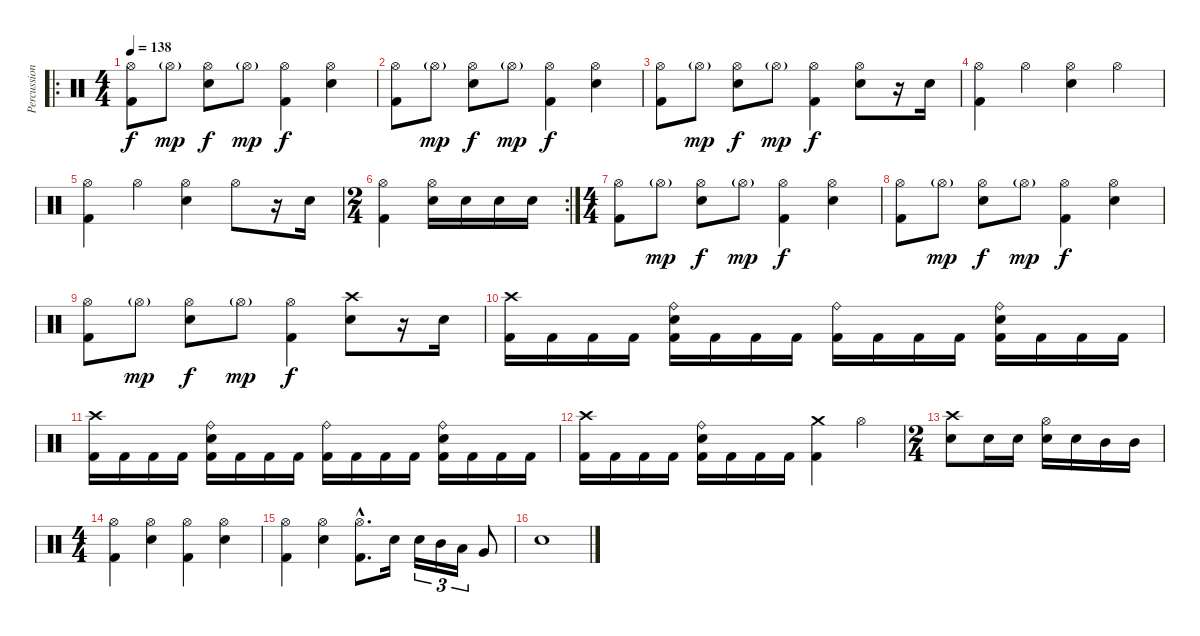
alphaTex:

\track ("Percussion" "Percussion") {instrument percussion}
\staff {score}
\articulation defaults
\ro
\ts (4 4)
\tempo 138
\clef neutral
\ks c
("Hi-Hat (open)" "Kick (hit) 2").8{dy f} "Hi-Hat (open)"{g}.8{dy mp} ("Hi-Hat (open)" "Snare (hit) 2").8{dy f} "Hi-Hat (open)"{g}.8{dy mp} ("Hi-Hat (open)" "Kick (hit) 2").4{dy f} ("Hi-Hat (open)" "Snare (hit) 2").4 |
("Hi-Hat (open)" "Kick (hit) 2").8 "Hi-Hat (open)"{g}.8{dy mp} ("Hi-Hat (open)" "Snare (hit) 2").8{dy f} "Hi-Hat (open)"{g}.8{dy mp} ("Hi-Hat (open)" "Kick (hit) 2").4{dy f} ("Hi-Hat (open)" "Snare (hit) 2").4 |
("Hi-Hat (open)" "Kick (hit) 2").8 "Hi-Hat (open)"{g}.8{dy mp} ("Hi-Hat (open)" "Snare (hit) 2").8{dy f} "Hi-Hat (open)"{g}.8{dy mp} ("Hi-Hat (open)" "Kick (hit) 2").4{dy f} ("Hi-Hat (open)" "Snare (hit) 2").8 r.16 "Snare (hit) 2".16 |
("Hi-Hat (open)" "Kick (hit) 2").4 "Hi-Hat (open)".4 ("Hi-Hat (open)" "Snare (hit) 2").4 "Hi-Hat (open)".4 |
("Hi-Hat (open)" "Kick (hit) 2").4 "Hi-Hat (open)".4 ("Hi-Hat (open)" "Snare (hit) 2").4 "Hi-Hat (open)".8 r.16 "Snare (hit) 2".16 |
\rc 2
\ts (2 4)
("Hi-Hat (open)" "Kick (hit) 2").4 ("Hi-Hat (open)" "Snare (hit) 2").16 "Snare (hit) 2".16 "Snare (hit) 2".16 "Snare (hit) 2".16 |
\ts (4 4)
("Hi-Hat (open)" "Kick (hit) 2").8 "Hi-Hat (open)"{g}.8{dy mp} ("Hi-Hat (open)" "Snare (hit) 2").8{dy f} "Hi-Hat (open)"{g}.8{dy mp} ("Hi-Hat (open)" "Kick (hit) 2").4{dy f} ("Hi-Hat (open)" "Snare (hit) 2").4 |
("Hi-Hat (open)" "Kick (hit) 2").8 "Hi-Hat (open)"{g}.8{dy mp} ("Hi-Hat (open)" "Snare (hit) 2").8{dy f} "Hi-Hat (open)"{g}.8{dy mp} ("Hi-Hat (open)" "Kick (hit) 2").4{dy f} ("Hi-Hat (open)" "Snare (hit) 2").4 |
("Hi-Hat (open)" "Kick (hit) 2").8 "Hi-Hat (open)"{g}.8{dy mp} ("Hi-Hat (open)" "Snare (hit) 2").8{dy f} "Hi-Hat (open)"{g}.8{dy mp} ("Hi-Hat (open)" "Kick (hit) 2").4{dy f} ("Crash high (hit)" "Snare (hit) 2").8 r.16 "Snare (hit) 2".16 |
("Crash high (hit)" "Kick (hit) 2").16 "Kick (hit) 2".16 "Kick (hit) 2".16 "Kick (hit) 2".16 ("Ride (bell)" "Snare (hit) 2" "Kick (hit) 2").16 "Kick (hit) 2".16 "Kick (hit) 2".16 "Kick (hit) 2".16 ("Ride (bell)" "Kick (hit) 2").16 "Kick (hit) 2".16 "Kick (hit) 2".16 "Kick (hit) 2".16 ("Ride (bell)" "Snare (hit) 2" "Kick (hit) 2").16 "Kick (hit) 2".16 "Kick (hit) 2".16 "Kick (hit) 2".16 |
("Crash high (hit)" "Kick (hit) 2").16 "Kick (hit) 2".16 "Kick (hit) 2".16 "Kick (hit) 2".16 ("Ride (bell)" "Snare (hit) 2" "Kick (hit) 2").16 "Kick (hit) 2".16 "Kick (hit) 2".16 "Kick (hit) 2".16 ("Ride (bell)" "Kick (hit) 2").16 "Kick (hit) 2".16 "Kick (hit) 2".16 "Kick (hit) 2".16 ("Ride (bell)" "Snare (hit) 2" "Kick (hit) 2").16 "Kick (hit) 2".16 "Kick (hit) 2".16 "Kick (hit) 2".16 |
("Crash high (hit)" "Kick (hit) 2").16 "Kick (hit) 2".16 "Kick (hit) 2".16 "Kick (hit) 2".16 ("Ride (bell)" "Snare (hit) 2" "Kick (hit) 2").16 "Kick (hit) 2".16 "Kick (hit) 2".16 "Kick (hit) 2".16 ("Crash medium (hit)" "Kick (hit) 2").4 "Hi-Hat (open)".4 |
\ts (2 4)
("Crash high (hit)" "Snare (hit) 2").8 "Snare (hit) 2".16 "Snare (hit) 2".16 ("Hi-Hat (open)" "Snare (hit) 2").16 "Snare (hit) 2".16 "Mid Tom (hit)".16 "Mid Tom (hit)".16 |
\ts (4 4)
("Hi-Hat (open)" "Kick (hit) 2").4 ("Hi-Hat (open)" "Snare (hit) 2").4 ("Hi-Hat (open)" "Kick (hit) 2").4 ("Hi-Hat (open)" "Snare (hit) 2").4 |
("Hi-Hat (open)" "Kick (hit) 2").4 ("Hi-Hat (open)" "Snare (hit) 2").4 ("Hi-Hat (open)"{hac} "Kick (hit) 2"{hac}).8{d} "Electric Snare (hit)".16 "Electric Snare (hit)".16{tu (3 2)} "Mid Tom (hit)".16{tu (3 2)} "Low Tom (hit)".16{tu (3 2)} "Very Low Tom (hit)".8 |
"Electric Snare (hit)".1
